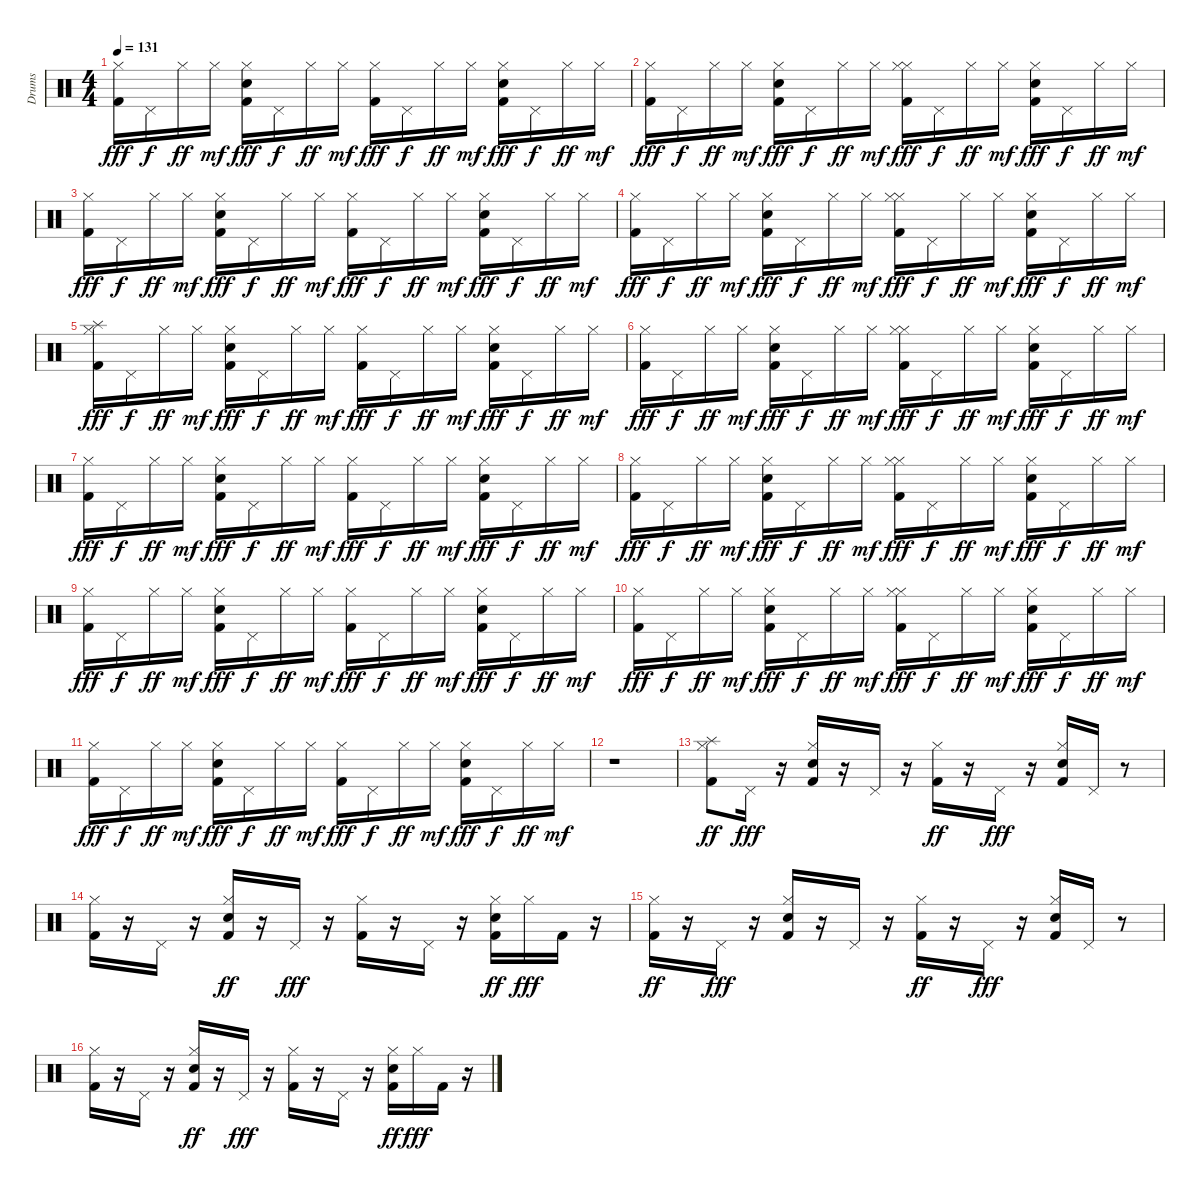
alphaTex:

\track ("Drums" "Drums") {instrument percussion}
\staff {score}
\articulation defaults
\ts (4 4)
\tempo 131
\clef neutral
\ks c
("Kick (hit) 2" "Hi-Hat (closed)").16{dy fff} "Pedal Hi-Hat (hit)".16{dy f} "Hi-Hat (closed)".16{dy ff} "Hi-Hat (closed)".16{dy mf} ("Kick (hit) 2" "Hand Clap (hit)" "Hi-Hat (closed)").16{dy fff} "Pedal Hi-Hat (hit)".16{dy f} "Hi-Hat (closed)".16{dy ff} "Hi-Hat (closed)".16{dy mf} ("Kick (hit) 2" "Hi-Hat (closed)").16{dy fff} "Pedal Hi-Hat (hit)".16{dy f} "Hi-Hat (closed)".16{dy ff} "Hi-Hat (closed)".16{dy mf} ("Kick (hit) 2" "Hand Clap (hit)" "Hi-Hat (closed)").16{dy fff} "Pedal Hi-Hat (hit)".16{dy f} "Hi-Hat (closed)".16{dy ff} "Hi-Hat (closed)".16{dy mf} |
("Kick (hit) 2" "Hi-Hat (closed)").16{dy fff} "Pedal Hi-Hat (hit)".16{dy f} "Hi-Hat (closed)".16{dy ff} "Hi-Hat (closed)".16{dy mf} ("Kick (hit) 2" "Hand Clap (hit)" "Hi-Hat (closed)").16{dy fff} "Pedal Hi-Hat (hit)".16{dy f} "Hi-Hat (closed)".16{dy ff} "Hi-Hat (closed)".16{dy mf} ("Kick (hit) 2" "Hi-Hat (closed)" "Hi-Hat (closed)").16{dy fff} "Pedal Hi-Hat (hit)".16{dy f} "Hi-Hat (closed)".16{dy ff} "Hi-Hat (closed)".16{dy mf} ("Kick (hit) 2" "Hand Clap (hit)" "Hi-Hat (closed)").16{dy fff} "Pedal Hi-Hat (hit)".16{dy f} "Hi-Hat (closed)".16{dy ff} "Hi-Hat (closed)".16{dy mf} |
("Kick (hit) 2" "Hi-Hat (closed)").16{dy fff} "Pedal Hi-Hat (hit)".16{dy f} "Hi-Hat (closed)".16{dy ff} "Hi-Hat (closed)".16{dy mf} ("Kick (hit) 2" "Hand Clap (hit)" "Hi-Hat (closed)").16{dy fff} "Pedal Hi-Hat (hit)".16{dy f} "Hi-Hat (closed)".16{dy ff} "Hi-Hat (closed)".16{dy mf} ("Kick (hit) 2" "Hi-Hat (closed)").16{dy fff} "Pedal Hi-Hat (hit)".16{dy f} "Hi-Hat (closed)".16{dy ff} "Hi-Hat (closed)".16{dy mf} ("Kick (hit) 2" "Hand Clap (hit)" "Hi-Hat (closed)").16{dy fff} "Pedal Hi-Hat (hit)".16{dy f} "Hi-Hat (closed)".16{dy ff} "Hi-Hat (closed)".16{dy mf} |
("Kick (hit) 2" "Hi-Hat (closed)").16{dy fff} "Pedal Hi-Hat (hit)".16{dy f} "Hi-Hat (closed)".16{dy ff} "Hi-Hat (closed)".16{dy mf} ("Kick (hit) 2" "Hand Clap (hit)" "Hi-Hat (closed)").16{dy fff} "Pedal Hi-Hat (hit)".16{dy f} "Hi-Hat (closed)".16{dy ff} "Hi-Hat (closed)".16{dy mf} ("Kick (hit) 2" "Hi-Hat (closed)" "Hi-Hat (closed)").16{dy fff} "Pedal Hi-Hat (hit)".16{dy f} "Hi-Hat (closed)".16{dy ff} "Hi-Hat (closed)".16{dy mf} ("Kick (hit) 2" "Hand Clap (hit)" "Hi-Hat (closed)").16{dy fff} "Pedal Hi-Hat (hit)".16{dy f} "Hi-Hat (closed)".16{dy ff} "Hi-Hat (closed)".16{dy mf} |
("Kick (hit) 2" "Splash (hit)" "Hi-Hat (closed)").16{dy fff} "Pedal Hi-Hat (hit)".16{dy f} "Hi-Hat (closed)".16{dy ff} "Hi-Hat (closed)".16{dy mf} ("Kick (hit) 2" "Hand Clap (hit)" "Hi-Hat (closed)").16{dy fff} "Pedal Hi-Hat (hit)".16{dy f} "Hi-Hat (closed)".16{dy ff} "Hi-Hat (closed)".16{dy mf} ("Kick (hit) 2" "Hi-Hat (closed)").16{dy fff} "Pedal Hi-Hat (hit)".16{dy f} "Hi-Hat (closed)".16{dy ff} "Hi-Hat (closed)".16{dy mf} ("Kick (hit) 2" "Hand Clap (hit)" "Hi-Hat (closed)").16{dy fff} "Pedal Hi-Hat (hit)".16{dy f} "Hi-Hat (closed)".16{dy ff} "Hi-Hat (closed)".16{dy mf} |
("Kick (hit) 2" "Hi-Hat (closed)").16{dy fff} "Pedal Hi-Hat (hit)".16{dy f} "Hi-Hat (closed)".16{dy ff} "Hi-Hat (closed)".16{dy mf} ("Kick (hit) 2" "Hand Clap (hit)" "Hi-Hat (closed)").16{dy fff} "Pedal Hi-Hat (hit)".16{dy f} "Hi-Hat (closed)".16{dy ff} "Hi-Hat (closed)".16{dy mf} ("Kick (hit) 2" "Hi-Hat (closed)" "Hi-Hat (closed)").16{dy fff} "Pedal Hi-Hat (hit)".16{dy f} "Hi-Hat (closed)".16{dy ff} "Hi-Hat (closed)".16{dy mf} ("Kick (hit) 2" "Hand Clap (hit)" "Hi-Hat (closed)").16{dy fff} "Pedal Hi-Hat (hit)".16{dy f} "Hi-Hat (closed)".16{dy ff} "Hi-Hat (closed)".16{dy mf} |
("Kick (hit) 2" "Hi-Hat (closed)").16{dy fff} "Pedal Hi-Hat (hit)".16{dy f} "Hi-Hat (closed)".16{dy ff} "Hi-Hat (closed)".16{dy mf} ("Kick (hit) 2" "Hand Clap (hit)" "Hi-Hat (closed)").16{dy fff} "Pedal Hi-Hat (hit)".16{dy f} "Hi-Hat (closed)".16{dy ff} "Hi-Hat (closed)".16{dy mf} ("Kick (hit) 2" "Hi-Hat (closed)").16{dy fff} "Pedal Hi-Hat (hit)".16{dy f} "Hi-Hat (closed)".16{dy ff} "Hi-Hat (closed)".16{dy mf} ("Kick (hit) 2" "Hand Clap (hit)" "Hi-Hat (closed)").16{dy fff} "Pedal Hi-Hat (hit)".16{dy f} "Hi-Hat (closed)".16{dy ff} "Hi-Hat (closed)".16{dy mf} |
("Kick (hit) 2" "Hi-Hat (closed)").16{dy fff} "Pedal Hi-Hat (hit)".16{dy f} "Hi-Hat (closed)".16{dy ff} "Hi-Hat (closed)".16{dy mf} ("Kick (hit) 2" "Hand Clap (hit)" "Hi-Hat (closed)").16{dy fff} "Pedal Hi-Hat (hit)".16{dy f} "Hi-Hat (closed)".16{dy ff} "Hi-Hat (closed)".16{dy mf} ("Kick (hit) 2" "Hi-Hat (closed)" "Hi-Hat (closed)").16{dy fff} "Pedal Hi-Hat (hit)".16{dy f} "Hi-Hat (closed)".16{dy ff} "Hi-Hat (closed)".16{dy mf} ("Kick (hit) 2" "Hand Clap (hit)" "Hi-Hat (closed)").16{dy fff} "Pedal Hi-Hat (hit)".16{dy f} "Hi-Hat (closed)".16{dy ff} "Hi-Hat (closed)".16{dy mf} |
("Kick (hit) 2" "Hi-Hat (closed)").16{dy fff} "Pedal Hi-Hat (hit)".16{dy f} "Hi-Hat (closed)".16{dy ff} "Hi-Hat (closed)".16{dy mf} ("Kick (hit) 2" "Hand Clap (hit)" "Hi-Hat (closed)").16{dy fff} "Pedal Hi-Hat (hit)".16{dy f} "Hi-Hat (closed)".16{dy ff} "Hi-Hat (closed)".16{dy mf} ("Kick (hit) 2" "Hi-Hat (closed)").16{dy fff} "Pedal Hi-Hat (hit)".16{dy f} "Hi-Hat (closed)".16{dy ff} "Hi-Hat (closed)".16{dy mf} ("Kick (hit) 2" "Hand Clap (hit)" "Hi-Hat (closed)").16{dy fff} "Pedal Hi-Hat (hit)".16{dy f} "Hi-Hat (closed)".16{dy ff} "Hi-Hat (closed)".16{dy mf} |
("Kick (hit) 2" "Hi-Hat (closed)").16{dy fff} "Pedal Hi-Hat (hit)".16{dy f} "Hi-Hat (closed)".16{dy ff} "Hi-Hat (closed)".16{dy mf} ("Kick (hit) 2" "Hand Clap (hit)" "Hi-Hat (closed)").16{dy fff} "Pedal Hi-Hat (hit)".16{dy f} "Hi-Hat (closed)".16{dy ff} "Hi-Hat (closed)".16{dy mf} ("Kick (hit) 2" "Hi-Hat (closed)" "Hi-Hat (closed)").16{dy fff} "Pedal Hi-Hat (hit)".16{dy f} "Hi-Hat (closed)".16{dy ff} "Hi-Hat (closed)".16{dy mf} ("Kick (hit) 2" "Hand Clap (hit)" "Hi-Hat (closed)").16{dy fff} "Pedal Hi-Hat (hit)".16{dy f} "Hi-Hat (closed)".16{dy ff} "Hi-Hat (closed)".16{dy mf} |
("Kick (hit) 2" "Hi-Hat (closed)").16{dy fff} "Pedal Hi-Hat (hit)".16{dy f} "Hi-Hat (closed)".16{dy ff} "Hi-Hat (closed)".16{dy mf} ("Kick (hit) 2" "Hand Clap (hit)" "Hi-Hat (closed)").16{dy fff} "Pedal Hi-Hat (hit)".16{dy f} "Hi-Hat (closed)".16{dy ff} "Hi-Hat (closed)".16{dy mf} ("Kick (hit) 2" "Hi-Hat (closed)").16{dy fff} "Pedal Hi-Hat (hit)".16{dy f} "Hi-Hat (closed)".16{dy ff} "Hi-Hat (closed)".16{dy mf} ("Kick (hit) 2" "Hand Clap (hit)" "Hi-Hat (closed)").16{dy fff} "Pedal Hi-Hat (hit)".16{dy f} "Hi-Hat (closed)".16{dy ff} "Hi-Hat (closed)".16{dy mf} |
r.1 |
("Kick (hit) 2" "Splash (hit)" "Hi-Hat (closed)").8{dy ff} "Pedal Hi-Hat (hit)".16{dy fff} r.16 ("Kick (hit) 2" "Hand Clap (hit)" "Hi-Hat (closed)").16 r.16 "Pedal Hi-Hat (hit)".16 r.16 ("Kick (hit) 2" "Hi-Hat (closed)").16{dy ff} r.16 "Pedal Hi-Hat (hit)".16{dy fff} r.16 ("Kick (hit) 2" "Hand Clap (hit)" "Hi-Hat (closed)").16 "Pedal Hi-Hat (hit)".16 r.8 |
("Kick (hit) 2" "Hi-Hat (closed)").16 r.16 "Pedal Hi-Hat (hit)".16 r.16 ("Kick (hit) 2" "Hand Clap (hit)" "Hi-Hat (closed)").16{dy ff} r.16 "Pedal Hi-Hat (hit)".16{dy fff} r.16 ("Kick (hit) 2" "Hi-Hat (closed)").16 r.16 "Pedal Hi-Hat (hit)".16 r.16 ("Kick (hit) 2" "Hand Clap (hit)" "Hi-Hat (closed)").16{dy ff} "Hi-Hat (closed)".16{dy fff} "Kick (hit) 2".16 r.16 |
("Kick (hit) 2" "Hi-Hat (closed)").16{dy ff} r.16 "Pedal Hi-Hat (hit)".16{dy fff} r.16 ("Kick (hit) 2" "Hand Clap (hit)" "Hi-Hat (closed)").16 r.16 "Pedal Hi-Hat (hit)".16 r.16 ("Kick (hit) 2" "Hi-Hat (closed)").16{dy ff} r.16 "Pedal Hi-Hat (hit)".16{dy fff} r.16 ("Kick (hit) 2" "Hand Clap (hit)" "Hi-Hat (closed)").16 "Pedal Hi-Hat (hit)".16 r.8 |
("Kick (hit) 2" "Hi-Hat (closed)").16 r.16 "Pedal Hi-Hat (hit)".16 r.16 ("Kick (hit) 2" "Hand Clap (hit)" "Hi-Hat (closed)").16{dy ff} r.16 "Pedal Hi-Hat (hit)".16{dy fff} r.16 ("Kick (hit) 2" "Hi-Hat (closed)").16 r.16 "Pedal Hi-Hat (hit)".16 r.16 ("Kick (hit) 2" "Hand Clap (hit)" "Hi-Hat (closed)").16{dy ff} "Hi-Hat (closed)".16{dy fff} "Kick (hit) 2".16 r.16
